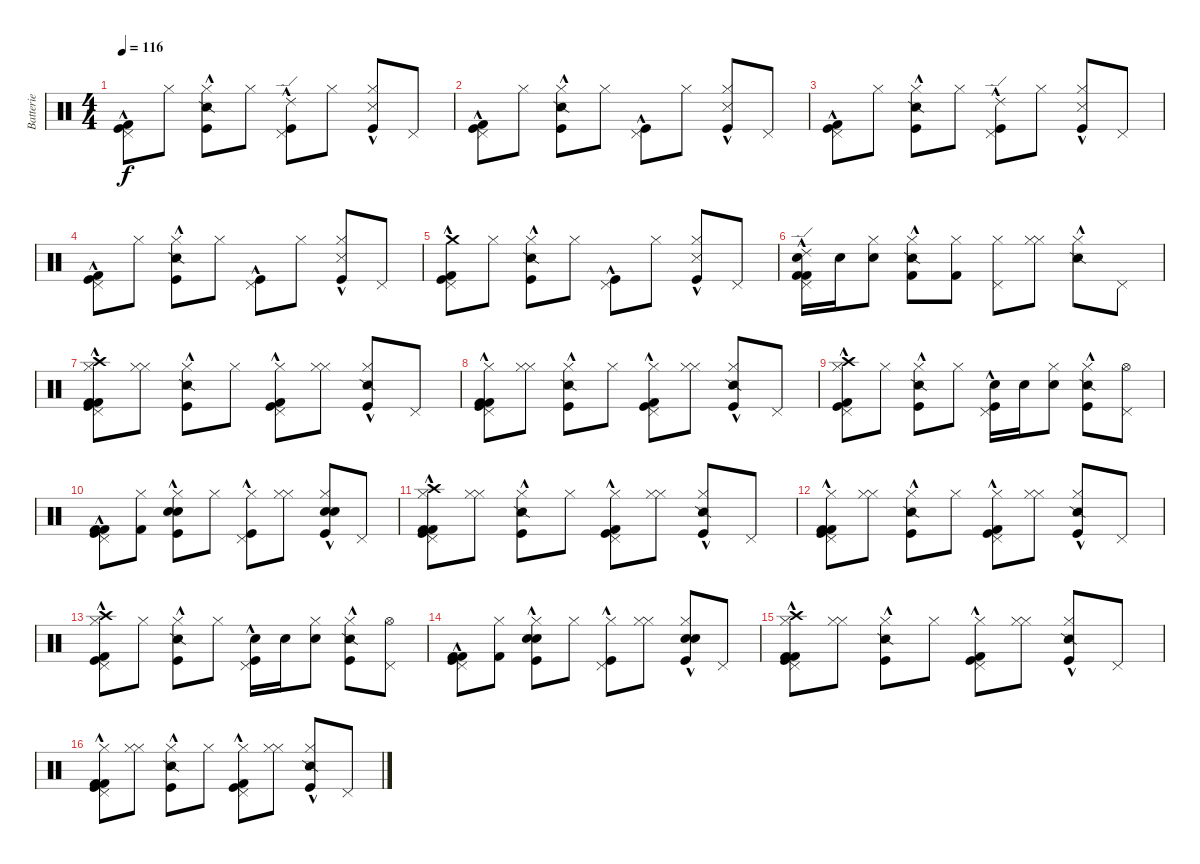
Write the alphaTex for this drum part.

\track ("Batterie" "Batterie") {instrument percussion}
\staff {score}
\articulation defaults
\ts (4 4)
\tempo 116
\clef neutral
\ks c
("Kick (hit)"{hac} "Kick (hit) 2"{hac} "Pedal Hi-Hat (hit)").8{dy f} "Hi-Hat (closed)".8 ("Snare (side stick) 2"{hac} "Kick (hit)"{hac} "Hi-Hat (closed)").8 "Hi-Hat (closed)".8 ("Kick (hit)"{hac} "Pedal Hi-Hat (hit)" "Ride (edge) 2"{hac}).8 "Hi-Hat (closed)".8 ("Kick (hit)"{hac} "Snare (side stick) 3"{hac} "Hi-Hat (closed)").8 "Pedal Hi-Hat (hit)".8 |
("Kick (hit)"{hac} "Kick (hit) 2"{hac} "Pedal Hi-Hat (hit)").8 "Hi-Hat (closed)".8 ("Snare (side stick) 2"{hac} "Kick (hit)"{hac} "Hi-Hat (closed)").8 "Hi-Hat (closed)".8 ("Kick (hit)"{hac} "Pedal Hi-Hat (hit)").8 "Hi-Hat (closed)".8 ("Kick (hit)"{hac} "Snare (side stick) 3"{hac} "Hi-Hat (closed)").8 "Pedal Hi-Hat (hit)".8 |
("Kick (hit)"{hac} "Kick (hit) 2"{hac} "Pedal Hi-Hat (hit)").8 "Hi-Hat (closed)".8 ("Snare (side stick) 2"{hac} "Kick (hit)"{hac} "Hi-Hat (closed)").8 "Hi-Hat (closed)".8 ("Kick (hit)"{hac} "Pedal Hi-Hat (hit)" "Ride (edge) 2"{hac}).8 "Hi-Hat (closed)".8 ("Kick (hit)"{hac} "Snare (side stick) 3"{hac} "Hi-Hat (closed)").8 "Pedal Hi-Hat (hit)".8 |
("Kick (hit)"{hac} "Kick (hit) 2"{hac} "Pedal Hi-Hat (hit)").8 "Hi-Hat (closed)".8 ("Snare (side stick) 2"{hac} "Kick (hit)"{hac} "Hi-Hat (closed)").8 "Hi-Hat (closed)".8 ("Kick (hit)"{hac} "Pedal Hi-Hat (hit)").8 "Hi-Hat (closed)".8 ("Kick (hit)"{hac} "Snare (side stick) 3"{hac} "Hi-Hat (closed)").8 "Pedal Hi-Hat (hit)".8 |
("Kick (hit)"{hac} "Kick (hit) 2"{hac} "Pedal Hi-Hat (hit)" "Crash medium (hit)"{hac}).8 "Hi-Hat (closed)".8 ("Snare (side stick) 2"{hac} "Kick (hit)"{hac} "Hi-Hat (closed)").8 "Hi-Hat (closed)".8 ("Kick (hit)"{hac} "Pedal Hi-Hat (hit)").8 "Hi-Hat (closed)".8 ("Kick (hit)"{hac} "Snare (side stick) 3"{hac} "Hi-Hat (closed)").8 "Pedal Hi-Hat (hit)".8 |
("Kick (hit) 2"{hac} "Snare (hit) 2" "Kick (hit) 2"{hac} "Pedal Hi-Hat (hit)" "Ride (edge) 2"{hac}).16 "Snare (hit) 2".16 ("Electric Snare (hit)" "Hi-Hat (closed)").8 ("Snare (side stick) 2"{hac} "Kick (hit) 2" "Hi-Hat (closed)").8 ("Kick (hit) 2" "Hi-Hat (closed)").8 ("Hi-Hat (closed)" "Pedal Hi-Hat (hit)").8 ("Hi-Hat (closed)" "Hi-Hat (closed)").8 ("Snare (side stick) 2"{hac} "Hi-Hat (closed)").8 "Pedal Hi-Hat (hit)".8 |
("Kick (hit) 2"{hac} "Hi-Hat (closed)" "Kick (hit) 2"{hac} "Pedal Hi-Hat (hit)" "Kick (hit)"{hac} "Crash high (hit)"{hac}).8 ("Hi-Hat (closed)" "Hi-Hat (closed)").8 ("Snare (side stick) 2"{hac} "Hi-Hat (closed)" "Kick (hit)"{hac}).8 "Hi-Hat (closed)".8 ("Kick (hit) 2"{hac} "Hi-Hat (closed)" "Pedal Hi-Hat (hit)" "Kick (hit)"{hac}).8 ("Hi-Hat (closed)" "Hi-Hat (closed)").8 ("Snare (side stick) 2"{hac} "Hi-Hat (closed)" "Kick (hit)"{hac}).8 "Pedal Hi-Hat (hit)".8 |
("Kick (hit) 2"{hac} "Hi-Hat (closed)" "Kick (hit) 2"{hac} "Pedal Hi-Hat (hit)" "Kick (hit)"{hac}).8 ("Hi-Hat (closed)" "Hi-Hat (closed)").8 ("Snare (side stick) 2"{hac} "Hi-Hat (closed)" "Kick (hit)"{hac}).8 "Hi-Hat (closed)".8 ("Kick (hit) 2"{hac} "Hi-Hat (closed)" "Pedal Hi-Hat (hit)" "Kick (hit)"{hac}).8 ("Hi-Hat (closed)" "Hi-Hat (closed)").8 ("Snare (side stick) 2"{hac} "Hi-Hat (closed)" "Kick (hit)"{hac}).8 "Pedal Hi-Hat (hit)".8 |
("Hi-Hat (closed)" "Kick (hit) 2"{hac} "Pedal Hi-Hat (hit)" "Kick (hit)"{hac} "Crash high (hit)"{hac}).8 "Hi-Hat (closed)".8 ("Snare (side stick) 2"{hac} "Hi-Hat (closed)" "Kick (hit)"{hac}).8 "Hi-Hat (closed)".8 ("Electric Snare (hit)" "Pedal Hi-Hat (hit)" "Kick (hit)"{hac}).16 "Electric Snare (hit)".16 ("Electric Snare (hit)" "Hi-Hat (closed)").8 ("Snare (side stick) 2" "Hi-Hat (closed)" "Kick (hit)"{hac}).8 ("Hi-Hat (open)" "Pedal Hi-Hat (hit)").8 |
("Kick (hit) 2" "Kick (hit) 2" "Pedal Hi-Hat (hit)" "Kick (hit)"{hac}).8 ("Kick (hit) 2" "Hi-Hat (closed)").8 ("Snare (hit) 2"{hac} "Electric Snare (hit)"{hac} "Hi-Hat (closed)" "Kick (hit)"{hac}).8 "Hi-Hat (closed)".8 ("Hi-Hat (closed)" "Pedal Hi-Hat (hit)" "Kick (hit)"{hac}).8 ("Hi-Hat (closed)" "Hi-Hat (closed)").8 ("Snare (hit) 2"{hac} "Electric Snare (hit)"{hac} "Hi-Hat (closed)" "Kick (hit)"{hac}).8 "Pedal Hi-Hat (hit)".8 |
("Kick (hit) 2"{hac} "Hi-Hat (closed)" "Kick (hit) 2"{hac} "Pedal Hi-Hat (hit)" "Kick (hit)"{hac} "Crash high (hit)"{hac}).8 ("Hi-Hat (closed)" "Hi-Hat (closed)").8 ("Snare (side stick) 2"{hac} "Hi-Hat (closed)" "Kick (hit)"{hac}).8 "Hi-Hat (closed)".8 ("Kick (hit) 2"{hac} "Hi-Hat (closed)" "Pedal Hi-Hat (hit)" "Kick (hit)"{hac}).8 ("Hi-Hat (closed)" "Hi-Hat (closed)").8 ("Snare (side stick) 2"{hac} "Hi-Hat (closed)" "Kick (hit)"{hac}).8 "Pedal Hi-Hat (hit)".8 |
("Kick (hit) 2"{hac} "Hi-Hat (closed)" "Kick (hit) 2"{hac} "Pedal Hi-Hat (hit)" "Kick (hit)"{hac}).8 ("Hi-Hat (closed)" "Hi-Hat (closed)").8 ("Snare (side stick) 2"{hac} "Hi-Hat (closed)" "Kick (hit)"{hac}).8 "Hi-Hat (closed)".8 ("Kick (hit) 2"{hac} "Hi-Hat (closed)" "Pedal Hi-Hat (hit)" "Kick (hit)"{hac}).8 ("Hi-Hat (closed)" "Hi-Hat (closed)").8 ("Snare (side stick) 2"{hac} "Hi-Hat (closed)" "Kick (hit)"{hac}).8 "Pedal Hi-Hat (hit)".8 |
("Hi-Hat (closed)" "Kick (hit) 2"{hac} "Pedal Hi-Hat (hit)" "Kick (hit)"{hac} "Crash high (hit)"{hac}).8 "Hi-Hat (closed)".8 ("Snare (side stick) 2"{hac} "Hi-Hat (closed)" "Kick (hit)"{hac}).8 "Hi-Hat (closed)".8 ("Electric Snare (hit)" "Pedal Hi-Hat (hit)" "Kick (hit)"{hac}).16 "Electric Snare (hit)".16 ("Electric Snare (hit)" "Hi-Hat (closed)").8 ("Snare (side stick) 2" "Hi-Hat (closed)" "Kick (hit)"{hac}).8 ("Hi-Hat (open)" "Pedal Hi-Hat (hit)").8 |
("Kick (hit) 2" "Kick (hit) 2" "Pedal Hi-Hat (hit)" "Kick (hit)"{hac}).8 ("Kick (hit) 2" "Hi-Hat (closed)").8 ("Snare (hit) 2"{hac} "Electric Snare (hit)"{hac} "Hi-Hat (closed)" "Kick (hit)"{hac}).8 "Hi-Hat (closed)".8 ("Hi-Hat (closed)" "Pedal Hi-Hat (hit)" "Kick (hit)"{hac}).8 ("Hi-Hat (closed)" "Hi-Hat (closed)").8 ("Snare (hit) 2"{hac} "Electric Snare (hit)"{hac} "Hi-Hat (closed)" "Kick (hit)"{hac}).8 "Pedal Hi-Hat (hit)".8 |
("Kick (hit) 2"{hac} "Hi-Hat (closed)" "Kick (hit) 2"{hac} "Pedal Hi-Hat (hit)" "Kick (hit)"{hac} "Crash high (hit)"{hac}).8 ("Hi-Hat (closed)" "Hi-Hat (closed)").8 ("Snare (side stick) 2"{hac} "Hi-Hat (closed)" "Kick (hit)"{hac}).8 "Hi-Hat (closed)".8 ("Kick (hit) 2"{hac} "Hi-Hat (closed)" "Pedal Hi-Hat (hit)" "Kick (hit)"{hac}).8 ("Hi-Hat (closed)" "Hi-Hat (closed)").8 ("Snare (side stick) 2"{hac} "Hi-Hat (closed)" "Kick (hit)"{hac}).8 "Pedal Hi-Hat (hit)".8 |
("Kick (hit) 2"{hac} "Hi-Hat (closed)" "Kick (hit) 2"{hac} "Pedal Hi-Hat (hit)" "Kick (hit)"{hac}).8 ("Hi-Hat (closed)" "Hi-Hat (closed)").8 ("Snare (side stick) 2"{hac} "Hi-Hat (closed)" "Kick (hit)"{hac}).8 "Hi-Hat (closed)".8 ("Kick (hit) 2"{hac} "Hi-Hat (closed)" "Pedal Hi-Hat (hit)" "Kick (hit)"{hac}).8 ("Hi-Hat (closed)" "Hi-Hat (closed)").8 ("Snare (side stick) 2"{hac} "Hi-Hat (closed)" "Kick (hit)"{hac}).8 "Pedal Hi-Hat (hit)".8
